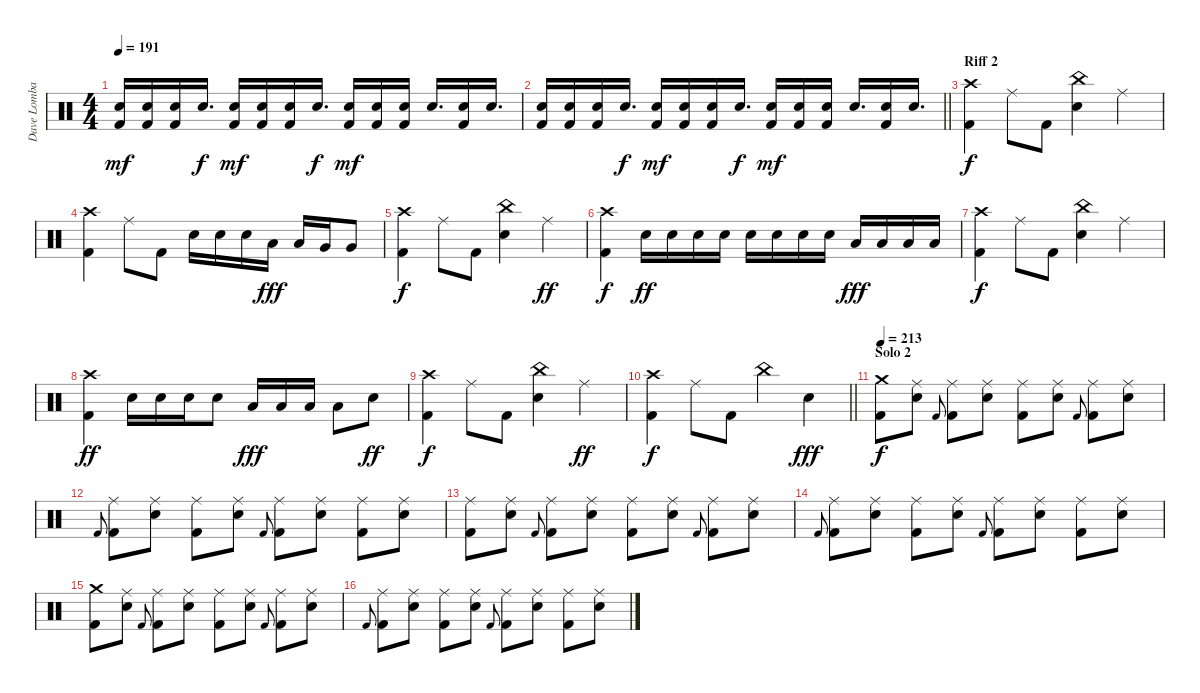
\track ("Dave Lombardo" "Dave Lomba") {instrument percussion}
\staff {score}
\articulation defaults
\ts (4 4)
\tempo 191
\clef neutral
\ks c
("Snare (hit) 2" "Kick (hit) 2").16{dy mf} ("Snare (hit) 2" "Kick (hit) 2").16 ("Snare (hit) 2" "Kick (hit) 2").16 "Snare (hit) 2".16{d dy f} ("Snare (hit) 2" "Kick (hit) 2").16{dy mf} ("Snare (hit) 2" "Kick (hit) 2").16 ("Snare (hit) 2" "Kick (hit) 2").16 "Snare (hit) 2".16{d dy f} ("Snare (hit) 2" "Kick (hit) 2").16{dy mf} ("Snare (hit) 2" "Kick (hit) 2").16 ("Snare (hit) 2" "Kick (hit) 2").16 "Snare (hit) 2".16{d} ("Snare (hit) 2" "Kick (hit) 2").16 "Snare (hit) 2".16{d} |
\barLineRight lightlight
("Snare (hit) 2" "Kick (hit) 2").16 ("Snare (hit) 2" "Kick (hit) 2").16 ("Snare (hit) 2" "Kick (hit) 2").16 "Snare (hit) 2".16{d dy f} ("Snare (hit) 2" "Kick (hit) 2").16{dy mf} ("Snare (hit) 2" "Kick (hit) 2").16 ("Snare (hit) 2" "Kick (hit) 2").16 "Snare (hit) 2".16{d dy f} ("Snare (hit) 2" "Kick (hit) 2").16{dy mf} ("Snare (hit) 2" "Kick (hit) 2").16 ("Snare (hit) 2" "Kick (hit) 2").16 "Snare (hit) 2".16{d} ("Snare (hit) 2" "Kick (hit) 2").16 "Snare (hit) 2".16{d} |
\section ("" "Riff 2")
("Crash high (hit)" "Kick (hit) 2").4{dy f} "Ride (middle)".8 "Kick (hit) 2".8 ("China (hit)" "Snare (hit) 2").4 "Ride (middle)".4 |
("Crash high (hit)" "Kick (hit) 2").4 "Ride (middle)".8 "Kick (hit) 2".8 "Snare (hit) 2".16 "Snare (hit) 2".16 "Snare (hit) 2".16 "Low Tom (hit)".16{dy fff} "Low Tom (hit)".16 "Very Low Tom (hit)".16 "Very Low Tom (hit)".8 |
("Crash high (hit)" "Kick (hit) 2").4{dy f} "Ride (middle)".8 "Kick (hit) 2".8 ("China (hit)" "Snare (hit) 2").4 "Ride (middle)".4{dy ff} |
("Crash high (hit)" "Kick (hit) 2").4{dy f} "Snare (hit) 2".16{dy ff} "Snare (hit) 2".16 "Snare (hit) 2".16 "Snare (hit) 2".16 "Snare (hit) 2".16 "Snare (hit) 2".16 "Snare (hit) 2".16 "Snare (hit) 2".16 "Low Floor Tom (hit)".16{dy fff} "Low Floor Tom (hit)".16 "Low Floor Tom (hit)".16 "Low Floor Tom (hit)".16 |
("Crash high (hit)" "Kick (hit) 2").4{dy f} "Ride (middle)".8 "Kick (hit) 2".8 ("China (hit)" "Snare (hit) 2").4 "Ride (middle)".4 |
("Crash high (hit)" "Kick (hit) 2").4{dy ff} "Snare (hit) 2".16 "Snare (hit) 2".16 "Snare (hit) 2".16 "Snare (hit) 2".8 "Low Floor Tom (hit)".16{dy fff} "Low Floor Tom (hit)".16 "Low Floor Tom (hit)".16 "Low Floor Tom (hit)".8 "Snare (hit) 2".8{dy ff} |
("Crash high (hit)" "Kick (hit) 2").4{dy f} "Ride (middle)".8 "Kick (hit) 2".8 ("China (hit)" "Snare (hit) 2").4 "Ride (middle)".4{dy ff} |
\barLineRight lightlight
("Crash high (hit)" "Kick (hit) 2").4{dy f} "Ride (middle)".8 "Kick (hit) 2".8 "China (hit)".4 "Snare (hit) 2".4{dy fff} |
\section ("" "Solo 2")
\tempo 213
("Crash medium (hit)" "Kick (hit) 2").8{dy f} ("Ride (middle)" "Snare (hit) 2").8 "Kick (hit) 2".8{gr onbeat} ("Ride (middle)" "Kick (hit) 2").8 ("Ride (middle)" "Snare (hit) 2").8 ("Ride (middle)" "Kick (hit) 2").8 ("Ride (middle)" "Snare (hit) 2").8 "Kick (hit) 2".8{gr onbeat} ("Ride (middle)" "Kick (hit) 2").8 ("Ride (middle)" "Snare (hit) 2").8 |
"Kick (hit) 2".8{gr onbeat} ("Ride (middle)" "Kick (hit) 2").8 ("Ride (middle)" "Snare (hit) 2").8 ("Ride (middle)" "Kick (hit) 2").8 ("Ride (middle)" "Snare (hit) 2").8 "Kick (hit) 2".8{gr onbeat} ("Ride (middle)" "Kick (hit) 2").8 ("Ride (middle)" "Snare (hit) 2").8 ("Ride (middle)" "Kick (hit) 2").8 ("Ride (middle)" "Snare (hit) 2").8 |
("Ride (middle)" "Kick (hit) 2").8 ("Ride (middle)" "Snare (hit) 2").8 "Kick (hit) 2".8{gr onbeat} ("Ride (middle)" "Kick (hit) 2").8 ("Ride (middle)" "Snare (hit) 2").8 ("Ride (middle)" "Kick (hit) 2").8 ("Ride (middle)" "Snare (hit) 2").8 "Kick (hit) 2".8{gr onbeat} ("Ride (middle)" "Kick (hit) 2").8 ("Ride (middle)" "Snare (hit) 2").8 |
"Kick (hit) 2".8{gr onbeat} ("Ride (middle)" "Kick (hit) 2").8 ("Ride (middle)" "Snare (hit) 2").8 ("Ride (middle)" "Kick (hit) 2").8 ("Ride (middle)" "Snare (hit) 2").8 "Kick (hit) 2".8{gr onbeat} ("Ride (middle)" "Kick (hit) 2").8 ("Ride (middle)" "Snare (hit) 2").8 ("Ride (middle)" "Kick (hit) 2").8 ("Ride (middle)" "Snare (hit) 2").8 |
("Crash medium (hit)" "Kick (hit) 2").8 ("Ride (middle)" "Snare (hit) 2").8 "Kick (hit) 2".8{gr onbeat} ("Ride (middle)" "Kick (hit) 2").8 ("Ride (middle)" "Snare (hit) 2").8 ("Ride (middle)" "Kick (hit) 2").8 ("Ride (middle)" "Snare (hit) 2").8 "Kick (hit) 2".8{gr onbeat} ("Ride (middle)" "Kick (hit) 2").8 ("Ride (middle)" "Snare (hit) 2").8 |
"Kick (hit) 2".8{gr onbeat} ("Ride (middle)" "Kick (hit) 2").8 ("Ride (middle)" "Snare (hit) 2").8 ("Ride (middle)" "Kick (hit) 2").8 ("Ride (middle)" "Snare (hit) 2").8 "Kick (hit) 2".8{gr onbeat} ("Ride (middle)" "Kick (hit) 2").8 ("Ride (middle)" "Snare (hit) 2").8 ("Ride (middle)" "Kick (hit) 2").8 ("Ride (middle)" "Snare (hit) 2").8
